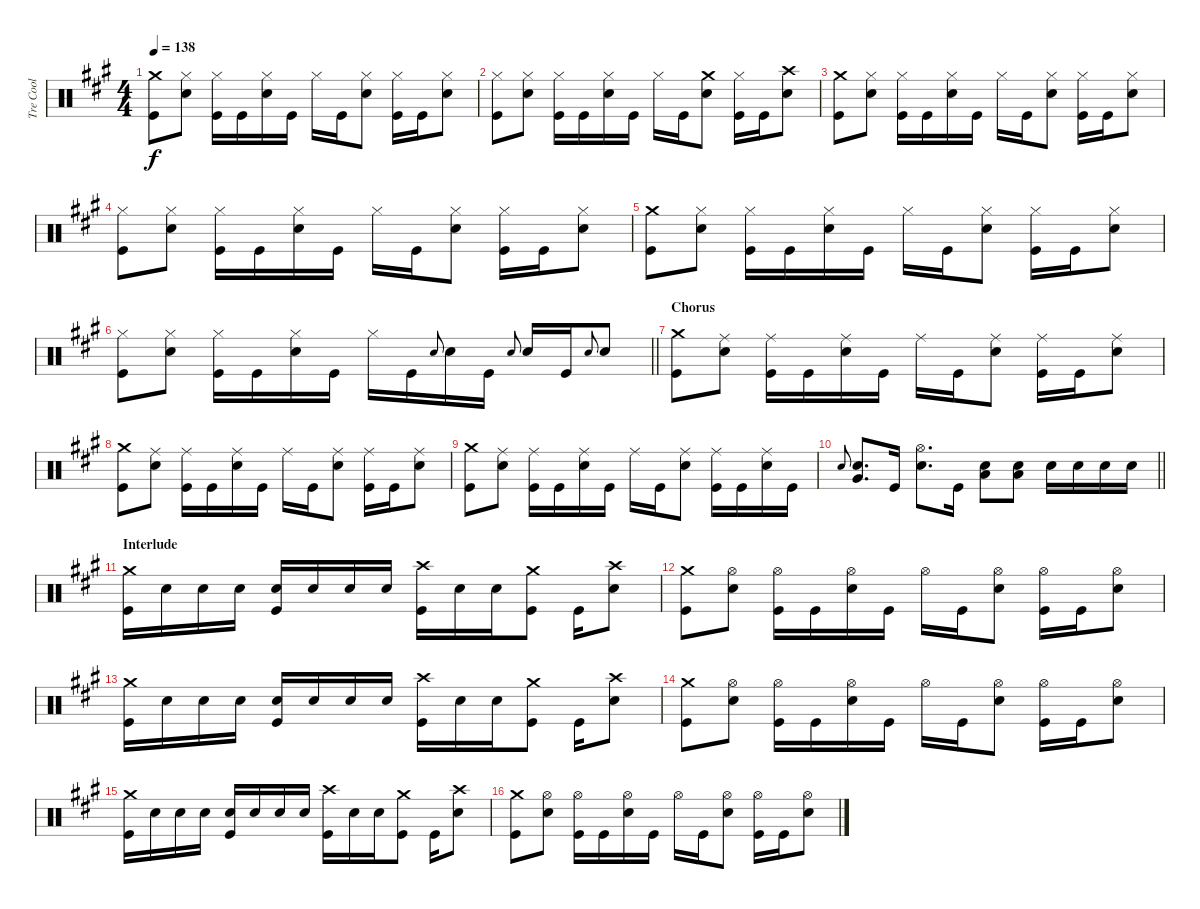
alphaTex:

\track ("Tre Cool" "Tre Cool") {instrument percussion}
\staff {score}
\articulation defaults
\ts (4 4)
\tempo 138
\clef neutral
\ks a
("Crash medium (hit)" "Kick (hit)").8{dy f} ("Hi-Hat (closed)" "Electric Snare (hit)").8 ("Hi-Hat (closed)" "Kick (hit)").16 "Kick (hit)".16 ("Hi-Hat (closed)" "Electric Snare (hit)").16 "Kick (hit)".16 "Hi-Hat (closed)".16 "Kick (hit)".16 ("Hi-Hat (closed)" "Electric Snare (hit)").8 ("Hi-Hat (closed)" "Kick (hit)").16 "Kick (hit)".16 ("Hi-Hat (closed)" "Electric Snare (hit)").8 |
("Hi-Hat (closed)" "Kick (hit)").8 ("Hi-Hat (closed)" "Electric Snare (hit)").8 ("Hi-Hat (closed)" "Kick (hit)").16 "Kick (hit)".16 ("Hi-Hat (closed)" "Electric Snare (hit)").16 "Kick (hit)".16 "Hi-Hat (closed)".16 "Kick (hit)".16 ("Crash medium (hit)" "Electric Snare (hit)").8 ("Hi-Hat (closed)" "Kick (hit)").16 "Kick (hit)".16 ("Crash high (hit)" "Electric Snare (hit)").8 |
("Crash medium (hit)" "Kick (hit)").8 ("Hi-Hat (closed)" "Electric Snare (hit)").8 ("Hi-Hat (closed)" "Kick (hit)").16 "Kick (hit)".16 ("Hi-Hat (closed)" "Electric Snare (hit)").16 "Kick (hit)".16 "Hi-Hat (closed)".16 "Kick (hit)".16 ("Hi-Hat (closed)" "Electric Snare (hit)").8 ("Hi-Hat (closed)" "Kick (hit)").16 "Kick (hit)".16 ("Hi-Hat (closed)" "Electric Snare (hit)").8 |
("Hi-Hat (closed)" "Kick (hit)").8 ("Hi-Hat (closed)" "Electric Snare (hit)").8 ("Hi-Hat (closed)" "Kick (hit)").16 "Kick (hit)".16 ("Hi-Hat (closed)" "Electric Snare (hit)").16 "Kick (hit)".16 "Hi-Hat (closed)".16 "Kick (hit)".16 ("Hi-Hat (closed)" "Electric Snare (hit)").8 ("Hi-Hat (closed)" "Kick (hit)").16 "Kick (hit)".16 ("Hi-Hat (closed)" "Electric Snare (hit)").8 |
("Crash medium (hit)" "Kick (hit)").8 ("Hi-Hat (closed)" "Electric Snare (hit)").8 ("Hi-Hat (closed)" "Kick (hit)").16 "Kick (hit)".16 ("Hi-Hat (closed)" "Electric Snare (hit)").16 "Kick (hit)".16 "Hi-Hat (closed)".16 "Kick (hit)".16 ("Hi-Hat (closed)" "Electric Snare (hit)").8 ("Hi-Hat (closed)" "Kick (hit)").16 "Kick (hit)".16 ("Hi-Hat (closed)" "Electric Snare (hit)").8 |
\barLineRight lightlight
("Hi-Hat (closed)" "Kick (hit)").8 ("Hi-Hat (closed)" "Electric Snare (hit)").8 ("Hi-Hat (closed)" "Kick (hit)").16 "Kick (hit)".16 ("Hi-Hat (closed)" "Electric Snare (hit)").16 "Kick (hit)".16 "Hi-Hat (closed)".16 "Kick (hit)".16 "Electric Snare (hit)".8{gr onbeat} "Electric Snare (hit)".16 "Kick (hit)".16 "Electric Snare (hit)".8{gr onbeat} "Electric Snare (hit)".16 "Kick (hit)".16 "Electric Snare (hit)".8{gr onbeat} "Electric Snare (hit)".8 |
\section ("" "Chorus")
("Crash medium (hit)" "Kick (hit)").8 ("Ride (middle)" "Electric Snare (hit)").8 ("Ride (middle)" "Kick (hit)").16 "Kick (hit)".16 ("Ride (middle)" "Electric Snare (hit)").16 "Kick (hit)".16 "Ride (middle)".16 "Kick (hit)".16 ("Ride (middle)" "Electric Snare (hit)").8 ("Ride (middle)" "Kick (hit)").16 "Kick (hit)".16 ("Ride (middle)" "Electric Snare (hit)").8 |
("Crash medium (hit)" "Kick (hit)").8 ("Ride (middle)" "Electric Snare (hit)").8 ("Ride (middle)" "Kick (hit)").16 "Kick (hit)".16 ("Ride (middle)" "Electric Snare (hit)").16 "Kick (hit)".16 "Ride (middle)".16 "Kick (hit)".16 ("Ride (middle)" "Electric Snare (hit)").8 ("Ride (middle)" "Kick (hit)").16 "Kick (hit)".16 ("Ride (middle)" "Electric Snare (hit)").8 |
("Crash medium (hit)" "Kick (hit)").8 ("Ride (middle)" "Electric Snare (hit)").8 ("Ride (middle)" "Kick (hit)").16 "Kick (hit)".16 ("Ride (middle)" "Electric Snare (hit)").16 "Kick (hit)".16 "Ride (middle)".16 "Kick (hit)".16 ("Ride (middle)" "Electric Snare (hit)").8 ("Ride (middle)" "Kick (hit)").16 "Kick (hit)".16 ("Ride (middle)" "Electric Snare (hit)").16 "Kick (hit)".16 |
\barLineRight lightlight "Electric Snare (hit)".8{gr onbeat}
("Very Low Tom (hit)" "Electric Snare (hit)").8{d} "Kick (hit)".16 ("Hi-Hat (open)" "Electric Snare (hit)").8{d} "Kick (hit)".16 ("Low Floor Tom (hit)" "Electric Snare (hit)").8 ("Low Floor Tom (hit)" "Electric Snare (hit)").8 "Electric Snare (hit)".16 "Electric Snare (hit)".16 "Electric Snare (hit)".16 "Electric Snare (hit)".16 |
\section ("" "Interlude")
("Crash medium (hit)" "Kick (hit)").16 "Electric Snare (hit)".16 "Electric Snare (hit)".16 "Electric Snare (hit)".16 ("Electric Snare (hit)" "Kick (hit)").16 "Electric Snare (hit)".16 "Electric Snare (hit)".16 "Electric Snare (hit)".16 ("Crash high (hit)" "Kick (hit)").16 "Electric Snare (hit)".16 "Electric Snare (hit)".16 ("Crash medium (hit)" "Kick (hit)").8 "Kick (hit)".16 ("Crash high (hit)" "Electric Snare (hit)").8 |
("Crash medium (hit)" "Kick (hit)").8 ("Hi-Hat (open)" "Electric Snare (hit)").8 ("Hi-Hat (open)" "Kick (hit)").16 "Kick (hit)".16 ("Hi-Hat (open)" "Electric Snare (hit)").16 "Kick (hit)".16 "Hi-Hat (open)".16 "Kick (hit)".16 ("Hi-Hat (open)" "Electric Snare (hit)").8 ("Hi-Hat (open)" "Kick (hit)").16 "Kick (hit)".16 ("Hi-Hat (open)" "Electric Snare (hit)").8 |
("Crash medium (hit)" "Kick (hit)").16 "Electric Snare (hit)".16 "Electric Snare (hit)".16 "Electric Snare (hit)".16 ("Electric Snare (hit)" "Kick (hit)").16 "Electric Snare (hit)".16 "Electric Snare (hit)".16 "Electric Snare (hit)".16 ("Crash high (hit)" "Kick (hit)").16 "Electric Snare (hit)".16 "Electric Snare (hit)".16 ("Crash medium (hit)" "Kick (hit)").8 "Kick (hit)".16 ("Crash high (hit)" "Electric Snare (hit)").8 |
("Crash medium (hit)" "Kick (hit)").8 ("Hi-Hat (open)" "Electric Snare (hit)").8 ("Hi-Hat (open)" "Kick (hit)").16 "Kick (hit)".16 ("Hi-Hat (open)" "Electric Snare (hit)").16 "Kick (hit)".16 "Hi-Hat (open)".16 "Kick (hit)".16 ("Hi-Hat (open)" "Electric Snare (hit)").8 ("Hi-Hat (open)" "Kick (hit)").16 "Kick (hit)".16 ("Hi-Hat (open)" "Electric Snare (hit)").8 |
("Crash medium (hit)" "Kick (hit)").16 "Electric Snare (hit)".16 "Electric Snare (hit)".16 "Electric Snare (hit)".16 ("Electric Snare (hit)" "Kick (hit)").16 "Electric Snare (hit)".16 "Electric Snare (hit)".16 "Electric Snare (hit)".16 ("Crash high (hit)" "Kick (hit)").16 "Electric Snare (hit)".16 "Electric Snare (hit)".16 ("Crash medium (hit)" "Kick (hit)").8 "Kick (hit)".16 ("Crash high (hit)" "Electric Snare (hit)").8 |
("Crash medium (hit)" "Kick (hit)").8 ("Hi-Hat (open)" "Electric Snare (hit)").8 ("Hi-Hat (open)" "Kick (hit)").16 "Kick (hit)".16 ("Hi-Hat (open)" "Electric Snare (hit)").16 "Kick (hit)".16 "Hi-Hat (open)".16 "Kick (hit)".16 ("Hi-Hat (open)" "Electric Snare (hit)").8 ("Hi-Hat (open)" "Kick (hit)").16 "Kick (hit)".16 ("Hi-Hat (open)" "Electric Snare (hit)").8
